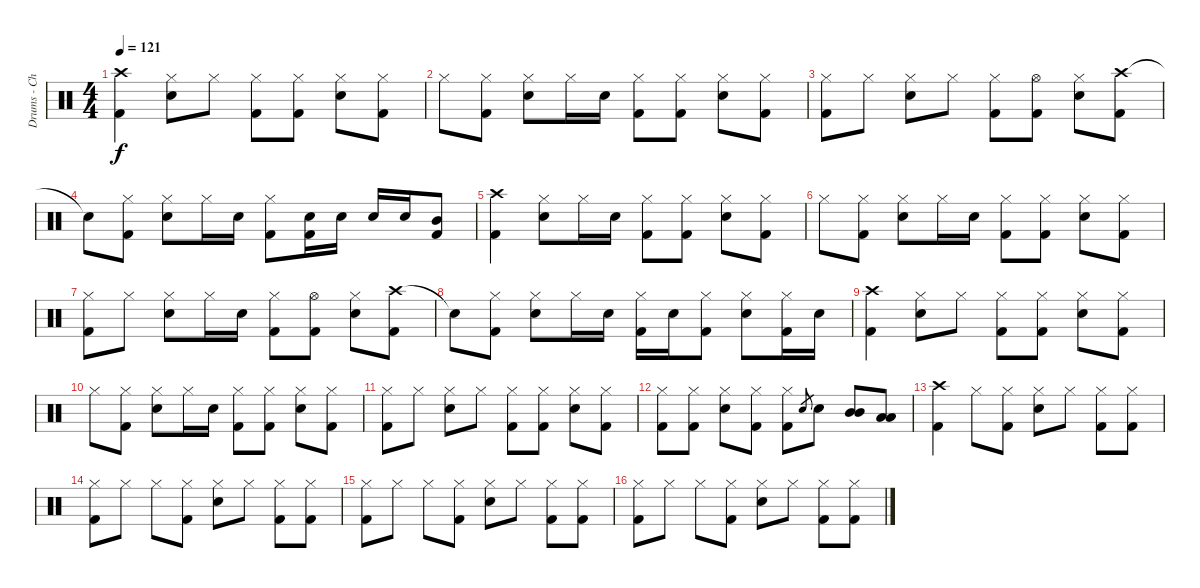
\track ("Drums - Chad" "Drums - Ch") {instrument percussion}
\staff {score}
\articulation defaults
\ts (4 4)
\tempo 121
\clef neutral
\ks c
("Crash high (hit)" "Kick (hit) 2").4{dy f} ("Hi-Hat (closed)" "Electric Snare (hit)").8 "Hi-Hat (closed)".8 ("Hi-Hat (closed)" "Kick (hit) 2").8 ("Hi-Hat (closed)" "Kick (hit) 2").8 ("Hi-Hat (closed)" "Electric Snare (hit)").8 ("Hi-Hat (closed)" "Kick (hit) 2").8 |
"Hi-Hat (closed)".8 ("Hi-Hat (closed)" "Kick (hit) 2").8 ("Hi-Hat (closed)" "Electric Snare (hit)").8 "Hi-Hat (closed)".16 "Electric Snare (hit)".16 ("Hi-Hat (closed)" "Kick (hit) 2").8 ("Hi-Hat (closed)" "Kick (hit) 2").8 ("Hi-Hat (closed)" "Electric Snare (hit)").8 ("Hi-Hat (closed)" "Kick (hit) 2").8 |
("Hi-Hat (closed)" "Kick (hit) 2").8 "Hi-Hat (closed)".8 ("Hi-Hat (closed)" "Electric Snare (hit)").8 "Hi-Hat (closed)".8 ("Hi-Hat (closed)" "Kick (hit) 2").8 ("Hi-Hat (open)" "Kick (hit) 2").8 ("Hi-Hat (closed)" "Electric Snare (hit)").8 ("Crash high (hit)" "Kick (hit) 2").8 |
"Snare (hit)"{t}.8 ("Hi-Hat (closed)" "Kick (hit) 2").8 ("Hi-Hat (closed)" "Electric Snare (hit)").8 "Hi-Hat (closed)".16 "Electric Snare (hit)".16 ("Hi-Hat (closed)" "Kick (hit) 2").8 ("Electric Snare (hit)" "Kick (hit) 2").16 "Electric Snare (hit)".16 "Electric Snare (hit)".16 "Electric Snare (hit)".16 ("Mid Tom (hit)" "Kick (hit) 2").8 |
("Crash high (hit)" "Kick (hit) 2").4 ("Hi-Hat (closed)" "Electric Snare (hit)").8 "Hi-Hat (closed)".16 "Electric Snare (hit)".16 ("Hi-Hat (closed)" "Kick (hit) 2").8 ("Hi-Hat (closed)" "Kick (hit) 2").8 ("Hi-Hat (closed)" "Electric Snare (hit)").8 ("Hi-Hat (closed)" "Kick (hit) 2").8 |
"Hi-Hat (closed)".8 ("Hi-Hat (closed)" "Kick (hit) 2").8 ("Hi-Hat (closed)" "Electric Snare (hit)").8 "Hi-Hat (closed)".16 "Electric Snare (hit)".16 ("Hi-Hat (closed)" "Kick (hit) 2").8 ("Hi-Hat (closed)" "Kick (hit) 2").8 ("Hi-Hat (closed)" "Electric Snare (hit)").8 ("Hi-Hat (closed)" "Kick (hit) 2").8 |
("Hi-Hat (closed)" "Kick (hit) 2").8 "Hi-Hat (closed)".8 ("Hi-Hat (closed)" "Electric Snare (hit)").8 "Hi-Hat (closed)".16 "Electric Snare (hit)".16 ("Hi-Hat (closed)" "Kick (hit) 2").8 ("Hi-Hat (open)" "Kick (hit) 2").8 ("Hi-Hat (closed)" "Electric Snare (hit)").8 ("Crash high (hit)" "Kick (hit) 2").8 |
"Snare (hit)"{t}.8 ("Hi-Hat (closed)" "Kick (hit) 2").8 ("Hi-Hat (closed)" "Electric Snare (hit)").8 "Hi-Hat (closed)".16 "Electric Snare (hit)".16 ("Hi-Hat (closed)" "Kick (hit) 2").16 "Electric Snare (hit)".16 ("Hi-Hat (closed)" "Kick (hit) 2").8 ("Hi-Hat (closed)" "Electric Snare (hit)").8 ("Hi-Hat (closed)" "Kick (hit) 2").16 "Electric Snare (hit)".16 |
("Crash high (hit)" "Kick (hit) 2").4 ("Hi-Hat (closed)" "Electric Snare (hit)").8 "Hi-Hat (closed)".8 ("Hi-Hat (closed)" "Kick (hit) 2").8 ("Hi-Hat (closed)" "Kick (hit) 2").8 ("Hi-Hat (closed)" "Electric Snare (hit)").8 ("Hi-Hat (closed)" "Kick (hit) 2").8 |
"Hi-Hat (closed)".8 ("Hi-Hat (closed)" "Kick (hit) 2").8 ("Hi-Hat (closed)" "Electric Snare (hit)").8 "Hi-Hat (closed)".16 "Electric Snare (hit)".16 ("Hi-Hat (closed)" "Kick (hit) 2").8 ("Hi-Hat (closed)" "Kick (hit) 2").8 ("Hi-Hat (closed)" "Electric Snare (hit)").8 ("Hi-Hat (closed)" "Kick (hit) 2").8 |
("Hi-Hat (closed)" "Kick (hit) 2").8 "Hi-Hat (closed)".8 ("Hi-Hat (closed)" "Electric Snare (hit)").8 "Hi-Hat (closed)".8 ("Hi-Hat (closed)" "Kick (hit) 2").8 ("Hi-Hat (closed)" "Kick (hit) 2").8 ("Hi-Hat (closed)" "Electric Snare (hit)").8 ("Hi-Hat (closed)" "Kick (hit) 2").8 |
("Hi-Hat (closed)" "Kick (hit) 2").8 ("Hi-Hat (closed)" "Kick (hit) 2").8 ("Hi-Hat (closed)" "Electric Snare (hit)").8 ("Hi-Hat (closed)" "Kick (hit) 2").8 ("Hi-Hat (closed)" "Kick (hit) 2").8 "Electric Snare (hit)".8{gr} "Electric Snare (hit)".8 ("Mid Tom (hit)" "Mid Tom (hit)").8 ("Low Tom (hit)" "Low Tom (hit)").8 |
("Crash high (hit)" "Kick (hit) 2").4 "Hi-Hat (closed)".8 ("Hi-Hat (closed)" "Kick (hit) 2").8 ("Hi-Hat (closed)" "Electric Snare (hit)").8 "Hi-Hat (closed)".8 ("Hi-Hat (closed)" "Kick (hit) 2").8 ("Hi-Hat (closed)" "Kick (hit) 2").8 |
("Hi-Hat (closed)" "Kick (hit) 2").8 "Hi-Hat (closed)".8 "Hi-Hat (closed)".8 ("Hi-Hat (closed)" "Kick (hit) 2").8 ("Hi-Hat (closed)" "Electric Snare (hit)").8 "Hi-Hat (closed)".8 ("Hi-Hat (closed)" "Kick (hit) 2").8 ("Hi-Hat (closed)" "Kick (hit) 2").8 |
("Hi-Hat (closed)" "Kick (hit) 2").8 "Hi-Hat (closed)".8 "Hi-Hat (closed)".8 ("Hi-Hat (closed)" "Kick (hit) 2").8 ("Hi-Hat (closed)" "Electric Snare (hit)").8 "Hi-Hat (closed)".8 ("Hi-Hat (closed)" "Kick (hit) 2").8 ("Hi-Hat (closed)" "Kick (hit) 2").8 |
("Hi-Hat (closed)" "Kick (hit) 2").8 "Hi-Hat (closed)".8 "Hi-Hat (closed)".8 ("Hi-Hat (closed)" "Kick (hit) 2").8 ("Hi-Hat (closed)" "Electric Snare (hit)").8 "Hi-Hat (closed)".8 ("Hi-Hat (closed)" "Kick (hit) 2").8 ("Hi-Hat (closed)" "Kick (hit) 2").8
